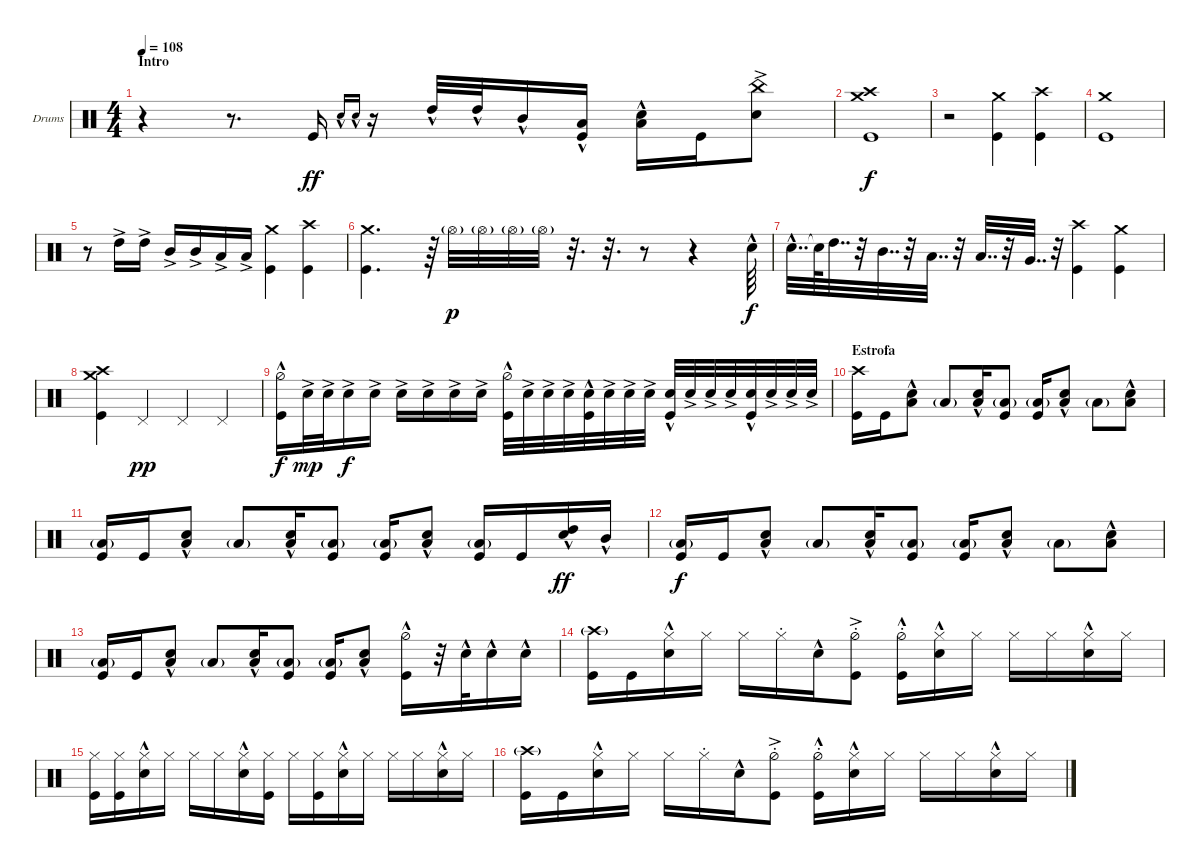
\defaultSystemsLayout 4
\bracketExtendMode groupsimilarinstruments
\firstSystemTrackNameOrientation horizontal
\otherSystemsTrackNameOrientation horizontal
\track ("Drumkit " "Drums") {instrument percussion}
\staff {score}
\articulation defaults
\ts (4 4)
\section ("" "Intro")
\tempo 108
\clef neutral
\ks c
r.4{dy ff} r.8{d} "Kick (hit)".16 "Snare (hit) 2"{hac}.16{gr onbeat} "Snare (hit) 2"{hac}.16{gr onbeat} r.16 "High Tom (hit)"{hac}.32 "High Tom (hit)"{hac}.32 "Mid Tom (hit)"{hac}.16 ("Kick (hit)"{hac} "Low Tom (hit)"{hac}).16 ("Snare (hit) 2"{hac} "Low Tom (hit)"{hac}).16 "Kick (hit)".16 ("Snare (hit) 2"{ac} "China (hit)").8 |
("Kick (hit)" "Crash high (hit)" "Crash medium (hit)").1{dy f} |
r.2 ("Kick (hit)" "Crash medium (hit)").4 ("Kick (hit)" "Crash high (hit)").4 |
("Kick (hit)" "Crash medium (hit)").1 |
r.8 "High Tom (hit)"{ac}.16 "High Tom (hit)"{ac}.16 "Mid Tom (hit)"{ac}.16 "Mid Tom (hit)"{ac}.16 "Low Tom (hit)"{ac}.16 "Low Tom (hit)"{ac}.16 ("Kick (hit)" "Crash medium (hit)").4 ("Kick (hit)" "Crash high (hit)").4 |
("Kick (hit)" "Crash medium (hit)").4{d} r.64 "Hi-Hat (open)"{g}.32{dy p} "Hi-Hat (open)"{g}.32 "Hi-Hat (open)"{g}.32 "Hi-Hat (open)"{g}.32 r.32{d} r.32{d} r.8 r.4 "Snare (hit) 2"{hac}.64{dy f} |
"Snare (hit) 2"{hac}.32{dd} "Snare (hit) 2"{t}.64 "High Tom (hit)".32{dd} r.32 "Mid Tom (hit)".32{dd} r.32 "Low Tom (hit)".32{dd} r.32 "Low Tom (hit)".32{dd} r.32 "Very Low Tom (hit)".32{dd} r.32 ("Kick (hit)" "Crash high (hit)").4 ("Kick (hit)" "Crash medium (hit)").4 |
("Kick (hit)" "Crash medium (hit)" "Crash high (hit)").4 "Pedal Hi-Hat (hit)".4{dy pp} "Pedal Hi-Hat (hit)".4 "Pedal Hi-Hat (hit)".4 |
("Kick (hit)" "Hi-Hat (half)"{hac}).16{dy f} "Snare (hit) 2"{ac}.32{dy mp} "Snare (hit) 2"{ac}.32 "Snare (hit) 2"{ac}.16{dy f} "Snare (hit) 2"{ac}.16 "Snare (hit) 2"{ac}.16 "Snare (hit) 2"{ac}.16 "Snare (hit) 2"{ac}.16 "Snare (hit) 2"{ac}.16 ("Kick (hit)"{hac} "Hi-Hat (half)"{hac}).32 "Snare (hit) 2"{ac}.32 "Snare (hit) 2"{ac}.32 "Snare (hit) 2"{ac}.32 ("Kick (hit)"{hac} "Snare (hit) 2").32 "Snare (hit) 2"{ac}.32 "Snare (hit) 2"{ac}.32 "Snare (hit) 2"{ac}.32 ("Kick (hit)"{hac} "Snare (hit) 2").32 "Snare (hit) 2"{ac}.32 "Snare (hit) 2"{ac}.32 "Snare (hit) 2"{ac}.32 ("Kick (hit)"{hac} "Snare (hit) 2").32 "Snare (hit) 2"{ac}.32 "Snare (hit) 2"{ac}.32 "Snare (hit) 2"{ac}.32 |
\section ("" "Estrofa")
("Crash high (hit)" "Kick (hit)").16 "Kick (hit)".16 ("Snare (hit) 2" "Low Tom (hit)"{hac}).8 "Low Tom (hit)"{g}.8 ("Snare (hit) 2" "Low Tom (hit)"{hac}).16 ("Kick (hit)" "Low Tom (hit)"{g}).8 ("Kick (hit)" "Low Tom (hit)"{g}).16 ("Snare (hit) 2" "Low Tom (hit)"{hac}).8 "Low Tom (hit)"{g}.8 ("Snare (hit) 2" "Low Tom (hit)"{hac}).8 |
("Kick (hit)" "Low Tom (hit)"{g}).16 "Kick (hit)".16 ("Snare (hit) 2" "Low Tom (hit)"{hac}).8 "Low Tom (hit)"{g}.8 ("Snare (hit) 2" "Low Tom (hit)"{hac}).16 ("Kick (hit)" "Low Tom (hit)"{g}).8 ("Kick (hit)" "Low Tom (hit)"{g}).16 ("Snare (hit) 2" "Low Tom (hit)"{hac}).8 ("Kick (hit)" "Low Tom (hit)"{g}).16 "Kick (hit)".16 ("Snare (hit) 2" "High Tom (hit)"{hac}).16{dy ff} "Mid Tom (hit)"{hac}.16 |
("Kick (hit)" "Low Tom (hit)"{g}).16{dy f} "Kick (hit)".16 ("Snare (hit) 2" "Low Tom (hit)"{hac}).8 "Low Tom (hit)"{g}.8 ("Snare (hit) 2" "Low Tom (hit)"{hac}).16 ("Kick (hit)" "Low Tom (hit)"{g}).8 ("Kick (hit)" "Low Tom (hit)"{g}).16 ("Snare (hit) 2" "Low Tom (hit)"{hac}).8 "Low Tom (hit)"{g}.8 ("Snare (hit) 2" "Low Tom (hit)"{hac}).8 |
("Kick (hit)" "Low Tom (hit)"{g}).16 "Kick (hit)".16 ("Snare (hit) 2" "Low Tom (hit)"{hac}).8 "Low Tom (hit)"{g}.8 ("Snare (hit) 2" "Low Tom (hit)"{hac}).16 ("Kick (hit)" "Low Tom (hit)"{g}).8 ("Kick (hit)" "Low Tom (hit)"{g}).16 ("Snare (hit) 2" "Low Tom (hit)"{hac}).8 ("Hi-Hat (half)"{hac} "Kick (hit)").16 r.32 "Snare (hit) 2"{hac}.32 "Snare (hit) 2"{hac}.16 "Snare (hit) 2"{hac}.16 |
("Kick (hit)" "Crash high (hit)"{g}).16 "Kick (hit)".16 ("Snare (hit) 2"{hac} "Hi-Hat (closed)").16 "Hi-Hat (closed)".16 "Hi-Hat (closed)".16 "Hi-Hat (closed)"{st}.16 "Snare (hit) 2"{hac}.16 ("Hi-Hat (half)"{ac st} "Kick (hit)").8 ("Hi-Hat (half)"{hac st} "Kick (hit)").16 ("Hi-Hat (closed)" "Snare (hit) 2"{hac}).16 "Hi-Hat (closed)".16 "Hi-Hat (closed)".16 "Hi-Hat (closed)".16 ("Hi-Hat (closed)" "Snare (hit) 2"{hac}).16 "Hi-Hat (closed)".16 |
("Kick (hit)" "Hi-Hat (closed)").16 ("Kick (hit)" "Hi-Hat (closed)").16 ("Snare (hit) 2"{hac} "Hi-Hat (closed)").16 "Hi-Hat (closed)".16 "Hi-Hat (closed)".16 "Hi-Hat (closed)".16 ("Snare (hit) 2"{hac} "Hi-Hat (closed)").16 ("Hi-Hat (closed)" "Kick (hit)").16 "Hi-Hat (closed)".16 ("Hi-Hat (closed)" "Kick (hit)").16 ("Hi-Hat (closed)" "Snare (hit) 2"{hac}).16 "Hi-Hat (closed)".16 "Hi-Hat (closed)".16 "Hi-Hat (closed)".16 ("Hi-Hat (closed)" "Snare (hit) 2"{hac}).16 "Hi-Hat (closed)".16 |
("Kick (hit)" "Crash high (hit)"{g}).16 "Kick (hit)".16 ("Snare (hit) 2"{hac} "Hi-Hat (closed)").16 "Hi-Hat (closed)".16 "Hi-Hat (closed)".16 "Hi-Hat (closed)"{st}.16 "Snare (hit) 2"{hac}.16 ("Hi-Hat (half)"{ac st} "Kick (hit)").8 ("Hi-Hat (half)"{hac st} "Kick (hit)").16 ("Hi-Hat (closed)" "Snare (hit) 2"{hac}).16 "Hi-Hat (closed)".16 "Hi-Hat (closed)".16 "Hi-Hat (closed)".16 ("Hi-Hat (closed)" "Snare (hit) 2"{hac}).16 "Hi-Hat (closed)".16
